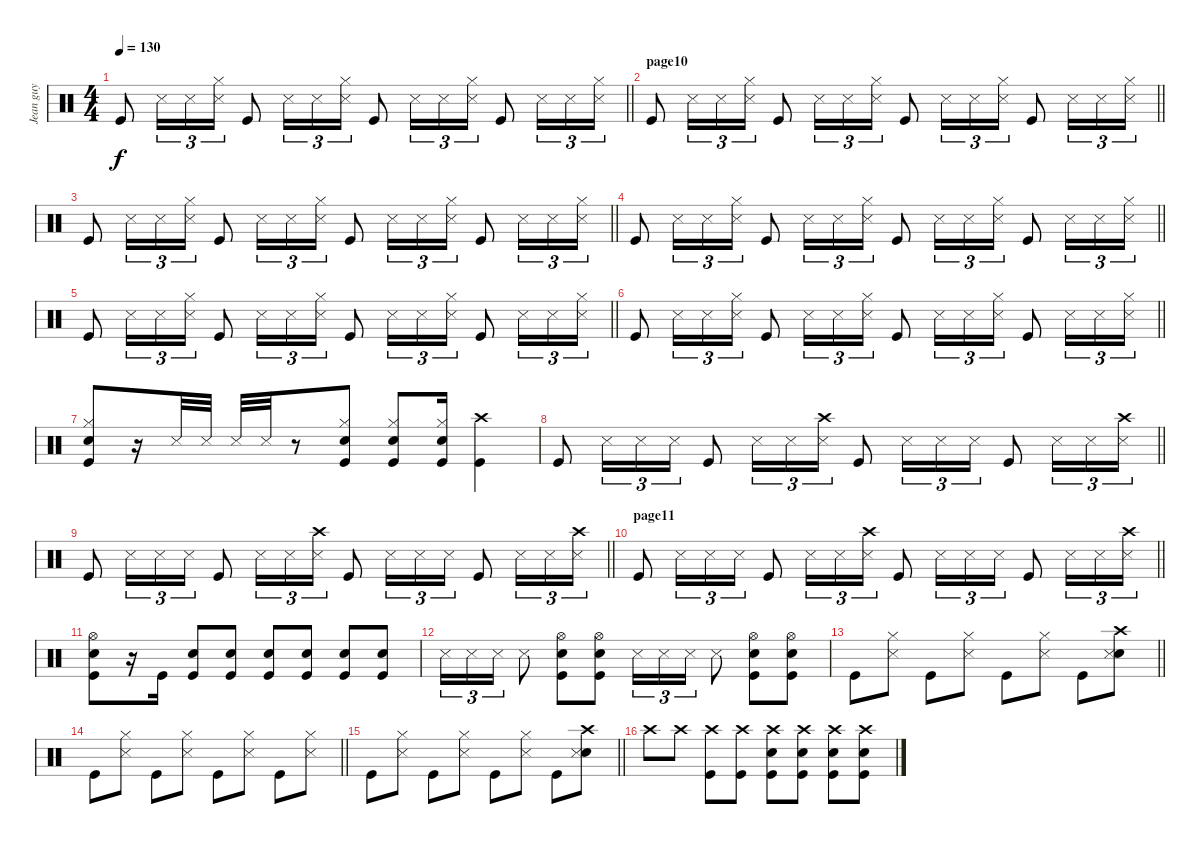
\track ("Jean guy" "Jean guy") {instrument percussion}
\staff {score}
\articulation defaults
\ts (4 4)
\tempo 130
\clef neutral
\barLineRight lightlight
\ks c "Kick (hit)".8{dy f} "Snare (side stick) 3".16{tu (3 2)} "Snare (side stick) 3".16{tu (3 2)}
("Hi-Hat (closed)" "Snare (side stick) 3").16{tu (3 2)} "Kick (hit)".8 "Snare (side stick) 3".16{tu (3 2)} "Snare (side stick) 3".16{tu (3 2)} ("Hi-Hat (closed)" "Snare (side stick) 3").16{tu (3 2)} "Kick (hit)".8 "Snare (side stick) 3".16{tu (3 2)} "Snare (side stick) 3".16{tu (3 2)} ("Hi-Hat (closed)" "Snare (side stick) 3").16{tu (3 2)} "Kick (hit)".8 "Snare (side stick) 3".16{tu (3 2)} "Snare (side stick) 3".16{tu (3 2)} ("Hi-Hat (closed)" "Snare (side stick) 3").16{tu (3 2)} |
\section ("" "page10")
\barLineRight lightlight "Kick (hit)".8 "Snare (side stick) 3".16{tu (3 2)} "Snare (side stick) 3".16{tu (3 2)}
("Hi-Hat (closed)" "Snare (side stick) 3").16{tu (3 2)} "Kick (hit)".8 "Snare (side stick) 3".16{tu (3 2)} "Snare (side stick) 3".16{tu (3 2)} ("Hi-Hat (closed)" "Snare (side stick) 3").16{tu (3 2)} "Kick (hit)".8 "Snare (side stick) 3".16{tu (3 2)} "Snare (side stick) 3".16{tu (3 2)} ("Hi-Hat (closed)" "Snare (side stick) 3").16{tu (3 2)} "Kick (hit)".8 "Snare (side stick) 3".16{tu (3 2)} "Snare (side stick) 3".16{tu (3 2)} ("Hi-Hat (closed)" "Snare (side stick) 3").16{tu (3 2)} |
\barLineRight lightlight "Kick (hit)".8 "Snare (side stick) 3".16{tu (3 2)} "Snare (side stick) 3".16{tu (3 2)}
("Hi-Hat (closed)" "Snare (side stick) 3").16{tu (3 2)} "Kick (hit)".8 "Snare (side stick) 3".16{tu (3 2)} "Snare (side stick) 3".16{tu (3 2)} ("Hi-Hat (closed)" "Snare (side stick) 3").16{tu (3 2)} "Kick (hit)".8 "Snare (side stick) 3".16{tu (3 2)} "Snare (side stick) 3".16{tu (3 2)} ("Hi-Hat (closed)" "Snare (side stick) 3").16{tu (3 2)} "Kick (hit)".8 "Snare (side stick) 3".16{tu (3 2)} "Snare (side stick) 3".16{tu (3 2)} ("Hi-Hat (closed)" "Snare (side stick) 3").16{tu (3 2)} |
\barLineRight lightlight "Kick (hit)".8 "Snare (side stick) 3".16{tu (3 2)} "Snare (side stick) 3".16{tu (3 2)}
("Hi-Hat (closed)" "Snare (side stick) 3").16{tu (3 2)} "Kick (hit)".8 "Snare (side stick) 3".16{tu (3 2)} "Snare (side stick) 3".16{tu (3 2)} ("Hi-Hat (closed)" "Snare (side stick) 3").16{tu (3 2)} "Kick (hit)".8 "Snare (side stick) 3".16{tu (3 2)} "Snare (side stick) 3".16{tu (3 2)} ("Hi-Hat (closed)" "Snare (side stick) 3").16{tu (3 2)} "Kick (hit)".8 "Snare (side stick) 3".16{tu (3 2)} "Snare (side stick) 3".16{tu (3 2)} ("Hi-Hat (closed)" "Snare (side stick) 3").16{tu (3 2)} |
\barLineRight lightlight "Kick (hit)".8 "Snare (side stick) 3".16{tu (3 2)} "Snare (side stick) 3".16{tu (3 2)}
("Hi-Hat (closed)" "Snare (side stick) 3").16{tu (3 2)} "Kick (hit)".8 "Snare (side stick) 3".16{tu (3 2)} "Snare (side stick) 3".16{tu (3 2)} ("Hi-Hat (closed)" "Snare (side stick) 3").16{tu (3 2)} "Kick (hit)".8 "Snare (side stick) 3".16{tu (3 2)} "Snare (side stick) 3".16{tu (3 2)} ("Hi-Hat (closed)" "Snare (side stick) 3").16{tu (3 2)} "Kick (hit)".8 "Snare (side stick) 3".16{tu (3 2)} "Snare (side stick) 3".16{tu (3 2)} ("Hi-Hat (closed)" "Snare (side stick) 3").16{tu (3 2)} |
\barLineRight lightlight "Kick (hit)".8 "Snare (side stick) 3".16{tu (3 2)} "Snare (side stick) 3".16{tu (3 2)}
("Hi-Hat (closed)" "Snare (side stick) 3").16{tu (3 2)} "Kick (hit)".8 "Snare (side stick) 3".16{tu (3 2)} "Snare (side stick) 3".16{tu (3 2)} ("Hi-Hat (closed)" "Snare (side stick) 3").16{tu (3 2)} "Kick (hit)".8 "Snare (side stick) 3".16{tu (3 2)} "Snare (side stick) 3".16{tu (3 2)} ("Hi-Hat (closed)" "Snare (side stick) 3").16{tu (3 2)} "Kick (hit)".8 "Snare (side stick) 3".16{tu (3 2)} "Snare (side stick) 3".16{tu (3 2)} ("Hi-Hat (closed)" "Snare (side stick) 3").16{tu (3 2)} |
("Hi-Hat (closed)" "Electric Snare (hit)" "Kick (hit)").8 r.16 "Snare (side stick) 3".32 "Snare (side stick) 3".32 "Snare (side stick) 3".32 "Snare (side stick) 3".32 r.8 ("Hi-Hat (closed)" "Electric Snare (hit)" "Kick (hit)").8 ("Hi-Hat (closed)" "Electric Snare (hit)" "Kick (hit)").8 ("Hi-Hat (closed)" "Electric Snare (hit)" "Kick (hit)").16 ("Crash high (hit)" "Kick (hit)").4 |
\barLineRight lightlight "Kick (hit)".8 "Snare (side stick) 3".16{tu (3 2)} "Snare (side stick) 3".16{tu (3 2)} "Snare (side stick) 3".16{tu (3 2)} "Kick (hit)".8 "Snare (side stick) 3".16{tu (3 2)} "Snare (side stick) 3".16{tu (3 2)}
("Crash high (hit)" "Snare (side stick) 3").16{tu (3 2)} "Kick (hit)".8 "Snare (side stick) 3".16{tu (3 2)} "Snare (side stick) 3".16{tu (3 2)} "Snare (side stick) 3".16{tu (3 2)} "Kick (hit)".8 "Snare (side stick) 3".16{tu (3 2)} "Snare (side stick) 3".16{tu (3 2)} ("Crash high (hit)" "Snare (side stick) 3").16{tu (3 2)} |
\barLineRight lightlight "Kick (hit)".8 "Snare (side stick) 3".16{tu (3 2)} "Snare (side stick) 3".16{tu (3 2)} "Snare (side stick) 3".16{tu (3 2)} "Kick (hit)".8 "Snare (side stick) 3".16{tu (3 2)} "Snare (side stick) 3".16{tu (3 2)}
("Crash high (hit)" "Snare (side stick) 3").16{tu (3 2)} "Kick (hit)".8 "Snare (side stick) 3".16{tu (3 2)} "Snare (side stick) 3".16{tu (3 2)} "Snare (side stick) 3".16{tu (3 2)} "Kick (hit)".8 "Snare (side stick) 3".16{tu (3 2)} "Snare (side stick) 3".16{tu (3 2)} ("Crash high (hit)" "Snare (side stick) 3").16{tu (3 2)} |
\section ("" "page11")
\barLineRight lightlight "Kick (hit)".8 "Snare (side stick) 3".16{tu (3 2)} "Snare (side stick) 3".16{tu (3 2)} "Snare (side stick) 3".16{tu (3 2)} "Kick (hit)".8 "Snare (side stick) 3".16{tu (3 2)} "Snare (side stick) 3".16{tu (3 2)}
("Crash high (hit)" "Snare (side stick) 3").16{tu (3 2)} "Kick (hit)".8 "Snare (side stick) 3".16{tu (3 2)} "Snare (side stick) 3".16{tu (3 2)} "Snare (side stick) 3".16{tu (3 2)} "Kick (hit)".8 "Snare (side stick) 3".16{tu (3 2)} "Snare (side stick) 3".16{tu (3 2)} ("Crash high (hit)" "Snare (side stick) 3").16{tu (3 2)} |
("Electric Snare (hit)" "Hi-Hat (open)" "Kick (hit)").8 r.16 "Kick (hit)".16 ("Electric Snare (hit)" "Kick (hit)").8 ("Electric Snare (hit)" "Kick (hit)").8 ("Electric Snare (hit)" "Kick (hit)").8 ("Electric Snare (hit)" "Kick (hit)").8 ("Electric Snare (hit)" "Kick (hit)").8 ("Electric Snare (hit)" "Kick (hit)").8 |
"Snare (side stick) 3".16{tu (3 2)} "Snare (side stick) 3".16{tu (3 2)} "Snare (side stick) 3".16{tu (3 2)} "Snare (side stick) 3".8 ("Electric Snare (hit)" "Kick (hit)" "Hi-Hat (open)").8 ("Electric Snare (hit)" "Kick (hit)" "Hi-Hat (open)").8 "Snare (side stick) 3".16{tu (3 2)} "Snare (side stick) 3".16{tu (3 2)} "Snare (side stick) 3".16{tu (3 2)} "Snare (side stick) 3".8 ("Electric Snare (hit)" "Kick (hit)" "Hi-Hat (open)").8 ("Electric Snare (hit)" "Kick (hit)" "Hi-Hat (open)").8 |
\barLineRight lightlight "Kick (hit)".8
("Hi-Hat (closed)" "Snare (side stick) 3").8 "Kick (hit)".8 ("Hi-Hat (closed)" "Snare (side stick) 3").8 "Kick (hit)".8 ("Hi-Hat (closed)" "Snare (side stick) 3").8 "Kick (hit)".8 ("Electric Snare (hit)" "Crash high (hit)" "Snare (side stick) 3").8 |
\barLineRight lightlight "Kick (hit)".8
("Hi-Hat (closed)" "Snare (side stick) 3").8 "Kick (hit)".8 ("Hi-Hat (closed)" "Snare (side stick) 3").8 "Kick (hit)".8 ("Hi-Hat (closed)" "Snare (side stick) 3").8 "Kick (hit)".8 ("Hi-Hat (closed)" "Snare (side stick) 3").8 |
\barLineRight lightlight "Kick (hit)".8
("Hi-Hat (closed)" "Snare (side stick) 3").8 "Kick (hit)".8 ("Hi-Hat (closed)" "Snare (side stick) 3").8 "Kick (hit)".8 ("Hi-Hat (closed)" "Snare (side stick) 3").8 "Kick (hit)".8 ("Electric Snare (hit)" "Crash high (hit)" "Snare (side stick) 3").8 |
"Crash high (hit)".8 "Crash high (hit)".8 ("Crash high (hit)" "Kick (hit)").8 ("Crash high (hit)" "Kick (hit)").8 ("Electric Snare (hit)" "Crash high (hit)" "Kick (hit)").8 ("Electric Snare (hit)" "Crash high (hit)" "Kick (hit)").8 ("Electric Snare (hit)" "Crash high (hit)" "Kick (hit)").8 ("Electric Snare (hit)" "Crash high (hit)" "Kick (hit)").8
